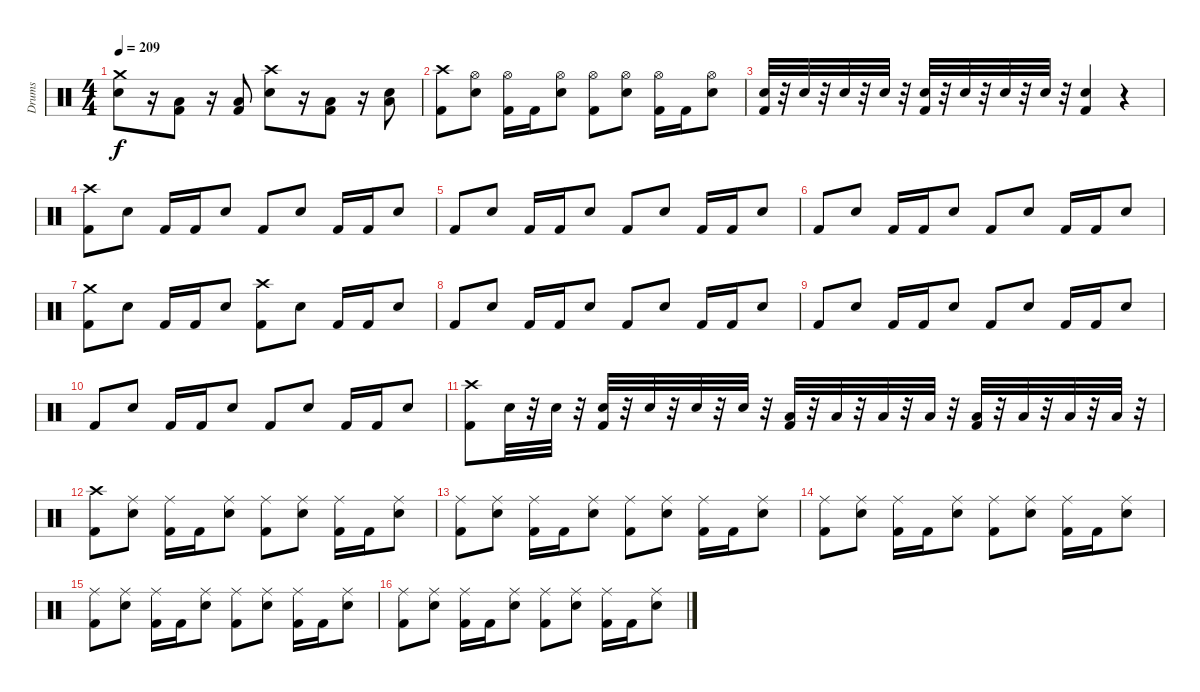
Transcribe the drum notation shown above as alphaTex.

\track ("Drums" "Drums") {instrument percussion}
\staff {score}
\articulation defaults
\ts (4 4)
\tempo 209
\clef neutral
\ks c
("Electric Snare (hit)" "Crash medium (hit)").8{dy f} r.16 ("Kick (hit) 2" "Low Floor Tom (hit)").8 r.16 ("Kick (hit) 2" "Low Floor Tom (hit)").8 ("Crash high (hit)" "Electric Snare (hit)").8 r.16 ("Kick (hit) 2" "Low Floor Tom (hit)").8 r.16 ("Low Floor Tom (hit)" "Electric Snare (hit)").8 |
("Crash high (hit)" "Kick (hit) 2").8 ("Hi-Hat (open)" "Electric Snare (hit)").8 ("Kick (hit) 2" "Hi-Hat (open)").16 "Kick (hit) 2".16 ("Hi-Hat (open)" "Electric Snare (hit)").8 ("Kick (hit) 2" "Hi-Hat (open)").8 ("Hi-Hat (open)" "Electric Snare (hit)").8 ("Kick (hit) 2" "Hi-Hat (open)").16 "Kick (hit) 2".16 ("Hi-Hat (open)" "Electric Snare (hit)").8 |
("Electric Snare (hit)" "Kick (hit) 2").32 r.32 "Electric Snare (hit)".32 r.32 "Electric Snare (hit)".32 r.32 "Electric Snare (hit)".32 r.32 ("Electric Snare (hit)" "Kick (hit) 2").32 r.32 "Electric Snare (hit)".32 r.32 "Electric Snare (hit)".32 r.32 "Electric Snare (hit)".32 r.32 ("Electric Snare (hit)" "Kick (hit) 2").4 r.4 |
("Crash high (hit)" "Kick (hit) 2").8 "Electric Snare (hit)".8 "Kick (hit) 2".16 "Kick (hit) 2".16 "Electric Snare (hit)".8 "Kick (hit) 2".8 "Electric Snare (hit)".8 "Kick (hit) 2".16 "Kick (hit) 2".16 "Electric Snare (hit)".8 |
"Kick (hit) 2".8 "Electric Snare (hit)".8 "Kick (hit) 2".16 "Kick (hit) 2".16 "Electric Snare (hit)".8 "Kick (hit) 2".8 "Electric Snare (hit)".8 "Kick (hit) 2".16 "Kick (hit) 2".16 "Electric Snare (hit)".8 |
"Kick (hit) 2".8 "Electric Snare (hit)".8 "Kick (hit) 2".16 "Kick (hit) 2".16 "Electric Snare (hit)".8 "Kick (hit) 2".8 "Electric Snare (hit)".8 "Kick (hit) 2".16 "Kick (hit) 2".16 "Electric Snare (hit)".8 |
("Kick (hit) 2" "Crash medium (hit)").8 "Electric Snare (hit)".8 "Kick (hit) 2".16 "Kick (hit) 2".16 "Electric Snare (hit)".8 ("Kick (hit) 2" "Crash high (hit)").8 "Electric Snare (hit)".8 "Kick (hit) 2".16 "Kick (hit) 2".16 "Electric Snare (hit)".8 |
"Kick (hit) 2".8 "Electric Snare (hit)".8 "Kick (hit) 2".16 "Kick (hit) 2".16 "Electric Snare (hit)".8 "Kick (hit) 2".8 "Electric Snare (hit)".8 "Kick (hit) 2".16 "Kick (hit) 2".16 "Electric Snare (hit)".8 |
"Kick (hit) 2".8 "Electric Snare (hit)".8 "Kick (hit) 2".16 "Kick (hit) 2".16 "Electric Snare (hit)".8 "Kick (hit) 2".8 "Electric Snare (hit)".8 "Kick (hit) 2".16 "Kick (hit) 2".16 "Electric Snare (hit)".8 |
"Kick (hit) 2".8 "Electric Snare (hit)".8 "Kick (hit) 2".16 "Kick (hit) 2".16 "Electric Snare (hit)".8 "Kick (hit) 2".8 "Electric Snare (hit)".8 "Kick (hit) 2".16 "Kick (hit) 2".16 "Electric Snare (hit)".8 |
("Kick (hit) 2" "Crash high (hit)").8 "Electric Snare (hit)".32 r.32 "Electric Snare (hit)".32 r.32 ("Electric Snare (hit)" "Kick (hit) 2").32 r.32 "Electric Snare (hit)".32 r.32 "Electric Snare (hit)".32 r.32 "Electric Snare (hit)".32 r.32 ("Kick (hit) 2" "Low Tom (hit)").32 r.32 "Low Tom (hit)".32 r.32 "Low Tom (hit)".32 r.32 "Low Tom (hit)".32 r.32 ("Kick (hit) 2" "Low Floor Tom (hit)").32 r.32 "Low Floor Tom (hit)".32 r.32 "Low Floor Tom (hit)".32 r.32 "Low Floor Tom (hit)".32 r.32 |
("Crash high (hit)" "Kick (hit) 2").8 ("Electric Snare (hit)" "Ride (middle)").8 ("Kick (hit) 2" "Ride (middle)").16 "Kick (hit) 2".16 ("Electric Snare (hit)" "Ride (middle)").8 ("Kick (hit) 2" "Ride (middle)").8 ("Electric Snare (hit)" "Ride (middle)").8 ("Kick (hit) 2" "Ride (middle)").16 "Kick (hit) 2".16 ("Electric Snare (hit)" "Ride (middle)").8 |
("Kick (hit) 2" "Ride (middle)").8 ("Electric Snare (hit)" "Ride (middle)").8 ("Kick (hit) 2" "Ride (middle)").16 "Kick (hit) 2".16 ("Electric Snare (hit)" "Ride (middle)").8 ("Kick (hit) 2" "Ride (middle)").8 ("Electric Snare (hit)" "Ride (middle)").8 ("Kick (hit) 2" "Ride (middle)").16 "Kick (hit) 2".16 ("Electric Snare (hit)" "Ride (middle)").8 |
("Kick (hit) 2" "Ride (middle)").8 ("Electric Snare (hit)" "Ride (middle)").8 ("Kick (hit) 2" "Ride (middle)").16 "Kick (hit) 2".16 ("Electric Snare (hit)" "Ride (middle)").8 ("Kick (hit) 2" "Ride (middle)").8 ("Electric Snare (hit)" "Ride (middle)").8 ("Kick (hit) 2" "Ride (middle)").16 "Kick (hit) 2".16 ("Electric Snare (hit)" "Ride (middle)").8 |
("Kick (hit) 2" "Ride (middle)").8 ("Electric Snare (hit)" "Ride (middle)").8 ("Kick (hit) 2" "Ride (middle)").16 "Kick (hit) 2".16 ("Electric Snare (hit)" "Ride (middle)").8 ("Kick (hit) 2" "Ride (middle)").8 ("Electric Snare (hit)" "Ride (middle)").8 ("Kick (hit) 2" "Ride (middle)").16 "Kick (hit) 2".16 ("Electric Snare (hit)" "Ride (middle)").8 |
("Kick (hit) 2" "Ride (middle)").8 ("Electric Snare (hit)" "Ride (middle)").8 ("Kick (hit) 2" "Ride (middle)").16 "Kick (hit) 2".16 ("Electric Snare (hit)" "Ride (middle)").8 ("Kick (hit) 2" "Ride (middle)").8 ("Electric Snare (hit)" "Ride (middle)").8 ("Kick (hit) 2" "Ride (middle)").16 "Kick (hit) 2".16 ("Electric Snare (hit)" "Ride (middle)").8
